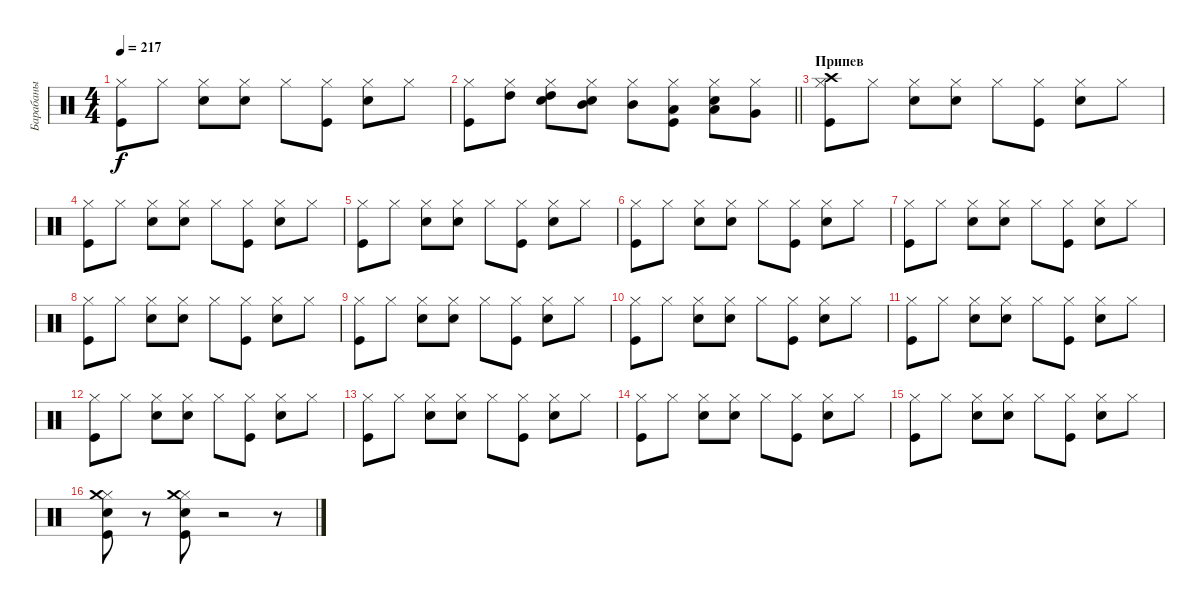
\track ("Барабаны" "Барабаны") {instrument percussion}
\staff {score}
\articulation defaults
\ts (4 4)
\tempo 217
\clef neutral
\ks c
("Kick (hit)" "Hi-Hat (closed)").8{dy f} "Hi-Hat (closed)".8 ("Snare (hit) 2" "Hi-Hat (closed)").8 ("Snare (hit) 2" "Hi-Hat (closed)").8 "Hi-Hat (closed)".8 ("Kick (hit)" "Hi-Hat (closed)").8 ("Snare (hit) 2" "Hi-Hat (closed)").8 "Hi-Hat (closed)".8 |
\barLineRight lightlight
("Kick (hit)" "Hi-Hat (closed)").8 ("Hi-Hat (closed)" "High Tom (hit)").8 ("Snare (hit) 2" "Hi-Hat (closed)" "High Tom (hit)").8 ("Snare (hit) 2" "Hi-Hat (closed)" "Mid Tom (hit)").8 ("Hi-Hat (closed)" "Mid Tom (hit)").8 ("Kick (hit)" "Hi-Hat (closed)" "Low Tom (hit)").8 ("Snare (hit) 2" "Hi-Hat (closed)" "Low Tom (hit)").8 ("Hi-Hat (closed)" "Very Low Tom (hit)").8 |
\section ("" "Припев")
("Kick (hit)" "Hi-Hat (closed)" "Crash high (hit)").8 "Hi-Hat (closed)".8 ("Snare (hit) 2" "Hi-Hat (closed)").8 ("Snare (hit) 2" "Hi-Hat (closed)").8 "Hi-Hat (closed)".8 ("Kick (hit)" "Hi-Hat (closed)").8 ("Snare (hit) 2" "Hi-Hat (closed)").8 "Hi-Hat (closed)".8 |
("Kick (hit)" "Hi-Hat (closed)").8 "Hi-Hat (closed)".8 ("Snare (hit) 2" "Hi-Hat (closed)").8 ("Snare (hit) 2" "Hi-Hat (closed)").8 "Hi-Hat (closed)".8 ("Kick (hit)" "Hi-Hat (closed)").8 ("Snare (hit) 2" "Hi-Hat (closed)").8 "Hi-Hat (closed)".8 |
("Kick (hit)" "Hi-Hat (closed)").8 "Hi-Hat (closed)".8 ("Snare (hit) 2" "Hi-Hat (closed)").8 ("Snare (hit) 2" "Hi-Hat (closed)").8 "Hi-Hat (closed)".8 ("Kick (hit)" "Hi-Hat (closed)").8 ("Snare (hit) 2" "Hi-Hat (closed)").8 "Hi-Hat (closed)".8 |
("Kick (hit)" "Hi-Hat (closed)").8 "Hi-Hat (closed)".8 ("Snare (hit) 2" "Hi-Hat (closed)").8 ("Snare (hit) 2" "Hi-Hat (closed)").8 "Hi-Hat (closed)".8 ("Kick (hit)" "Hi-Hat (closed)").8 ("Snare (hit) 2" "Hi-Hat (closed)").8 "Hi-Hat (closed)".8 |
("Kick (hit)" "Hi-Hat (closed)").8 "Hi-Hat (closed)".8 ("Snare (hit) 2" "Hi-Hat (closed)").8 ("Snare (hit) 2" "Hi-Hat (closed)").8 "Hi-Hat (closed)".8 ("Kick (hit)" "Hi-Hat (closed)").8 ("Snare (hit) 2" "Hi-Hat (closed)").8 "Hi-Hat (closed)".8 |
("Kick (hit)" "Hi-Hat (closed)").8 "Hi-Hat (closed)".8 ("Snare (hit) 2" "Hi-Hat (closed)").8 ("Snare (hit) 2" "Hi-Hat (closed)").8 "Hi-Hat (closed)".8 ("Kick (hit)" "Hi-Hat (closed)").8 ("Snare (hit) 2" "Hi-Hat (closed)").8 "Hi-Hat (closed)".8 |
("Kick (hit)" "Hi-Hat (closed)").8 "Hi-Hat (closed)".8 ("Snare (hit) 2" "Hi-Hat (closed)").8 ("Snare (hit) 2" "Hi-Hat (closed)").8 "Hi-Hat (closed)".8 ("Kick (hit)" "Hi-Hat (closed)").8 ("Snare (hit) 2" "Hi-Hat (closed)").8 "Hi-Hat (closed)".8 |
("Kick (hit)" "Hi-Hat (closed)").8 "Hi-Hat (closed)".8 ("Snare (hit) 2" "Hi-Hat (closed)").8 ("Snare (hit) 2" "Hi-Hat (closed)").8 "Hi-Hat (closed)".8 ("Kick (hit)" "Hi-Hat (closed)").8 ("Snare (hit) 2" "Hi-Hat (closed)").8 "Hi-Hat (closed)".8 |
("Kick (hit)" "Hi-Hat (closed)").8 "Hi-Hat (closed)".8 ("Snare (hit) 2" "Hi-Hat (closed)").8 ("Snare (hit) 2" "Hi-Hat (closed)").8 "Hi-Hat (closed)".8 ("Kick (hit)" "Hi-Hat (closed)").8 ("Snare (hit) 2" "Hi-Hat (closed)").8 "Hi-Hat (closed)".8 |
("Kick (hit)" "Hi-Hat (closed)").8 "Hi-Hat (closed)".8 ("Snare (hit) 2" "Hi-Hat (closed)").8 ("Snare (hit) 2" "Hi-Hat (closed)").8 "Hi-Hat (closed)".8 ("Kick (hit)" "Hi-Hat (closed)").8 ("Snare (hit) 2" "Hi-Hat (closed)").8 "Hi-Hat (closed)".8 |
("Kick (hit)" "Hi-Hat (closed)").8 "Hi-Hat (closed)".8 ("Snare (hit) 2" "Hi-Hat (closed)").8 ("Snare (hit) 2" "Hi-Hat (closed)").8 "Hi-Hat (closed)".8 ("Kick (hit)" "Hi-Hat (closed)").8 ("Snare (hit) 2" "Hi-Hat (closed)").8 "Hi-Hat (closed)".8 |
("Kick (hit)" "Hi-Hat (closed)").8 "Hi-Hat (closed)".8 ("Snare (hit) 2" "Hi-Hat (closed)").8 ("Snare (hit) 2" "Hi-Hat (closed)").8 "Hi-Hat (closed)".8 ("Kick (hit)" "Hi-Hat (closed)").8 ("Snare (hit) 2" "Hi-Hat (closed)").8 "Hi-Hat (closed)".8 |
("Kick (hit)" "Hi-Hat (closed)").8 "Hi-Hat (closed)".8 ("Snare (hit) 2" "Hi-Hat (closed)").8 ("Snare (hit) 2" "Hi-Hat (closed)").8 "Hi-Hat (closed)".8 ("Kick (hit)" "Hi-Hat (closed)").8 ("Snare (hit) 2" "Hi-Hat (closed)").8 "Hi-Hat (closed)".8 |
("Kick (hit)" "Snare (hit) 2" "Hi-Hat (closed)" "Crash medium (hit)").8 r.8 ("Kick (hit)" "Snare (hit) 2" "Hi-Hat (closed)" "Crash medium (hit)").8 r.2 r.8
